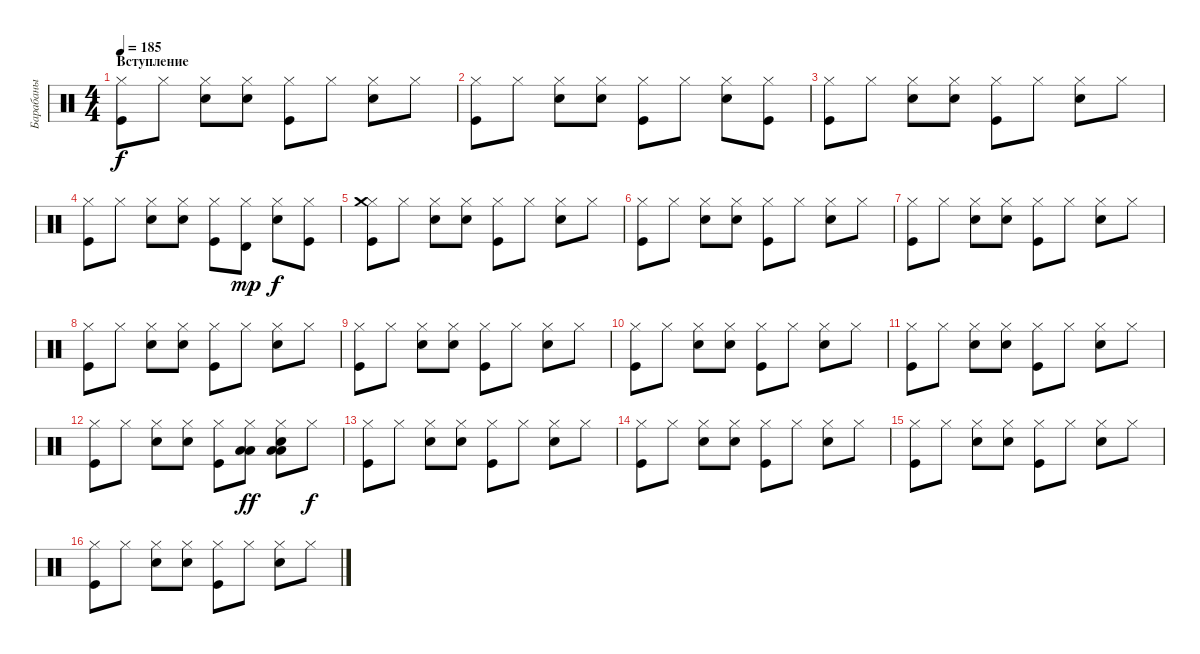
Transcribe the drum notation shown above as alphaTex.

\track ("Барабаны" "Барабаны") {instrument percussion}
\staff {score}
\articulation defaults
\ts (4 4)
\section ("" "Вступление")
\tempo 185
\clef neutral
\ks c
("Kick (hit)" "Hi-Hat (closed)").8{dy f} "Hi-Hat (closed)".8 ("Snare (hit) 2" "Hi-Hat (closed)").8 ("Snare (hit) 2" "Hi-Hat (closed)").8 ("Kick (hit)" "Hi-Hat (closed)").8 "Hi-Hat (closed)".8 ("Snare (hit) 2" "Hi-Hat (closed)").8 "Hi-Hat (closed)".8 |
("Kick (hit)" "Hi-Hat (closed)").8 "Hi-Hat (closed)".8 ("Snare (hit) 2" "Hi-Hat (closed)").8 ("Snare (hit) 2" "Hi-Hat (closed)").8 ("Kick (hit)" "Hi-Hat (closed)").8 "Hi-Hat (closed)".8 ("Snare (hit) 2" "Hi-Hat (closed)").8 ("Kick (hit)" "Hi-Hat (closed)").8 |
("Kick (hit)" "Hi-Hat (closed)").8 "Hi-Hat (closed)".8 ("Snare (hit) 2" "Hi-Hat (closed)").8 ("Snare (hit) 2" "Hi-Hat (closed)").8 ("Kick (hit)" "Hi-Hat (closed)").8 "Hi-Hat (closed)".8 ("Snare (hit) 2" "Hi-Hat (closed)").8 "Hi-Hat (closed)".8 |
("Kick (hit)" "Hi-Hat (closed)").8 "Hi-Hat (closed)".8 ("Snare (hit) 2" "Hi-Hat (closed)").8 ("Snare (hit) 2" "Hi-Hat (closed)").8 ("Kick (hit)" "Hi-Hat (closed)").8 ("Hi-Hat (closed)" "Timbale high (hit)").8{dy mp} ("Snare (hit) 2" "Hi-Hat (closed)").8{dy f} ("Kick (hit)" "Hi-Hat (closed)").8 |
("Kick (hit)" "Hi-Hat (closed)" "Crash medium (hit)").8 "Hi-Hat (closed)".8 ("Snare (hit) 2" "Hi-Hat (closed)").8 ("Snare (hit) 2" "Hi-Hat (closed)").8 ("Kick (hit)" "Hi-Hat (closed)").8 "Hi-Hat (closed)".8 ("Snare (hit) 2" "Hi-Hat (closed)").8 "Hi-Hat (closed)".8 |
("Kick (hit)" "Hi-Hat (closed)").8 "Hi-Hat (closed)".8 ("Snare (hit) 2" "Hi-Hat (closed)").8 ("Snare (hit) 2" "Hi-Hat (closed)").8 ("Kick (hit)" "Hi-Hat (closed)").8 "Hi-Hat (closed)".8 ("Snare (hit) 2" "Hi-Hat (closed)").8 "Hi-Hat (closed)".8 |
("Kick (hit)" "Hi-Hat (closed)").8 "Hi-Hat (closed)".8 ("Snare (hit) 2" "Hi-Hat (closed)").8 ("Snare (hit) 2" "Hi-Hat (closed)").8 ("Kick (hit)" "Hi-Hat (closed)").8 "Hi-Hat (closed)".8 ("Snare (hit) 2" "Hi-Hat (closed)").8 "Hi-Hat (closed)".8 |
("Kick (hit)" "Hi-Hat (closed)").8 "Hi-Hat (closed)".8 ("Snare (hit) 2" "Hi-Hat (closed)").8 ("Snare (hit) 2" "Hi-Hat (closed)").8 ("Kick (hit)" "Hi-Hat (closed)").8 "Hi-Hat (closed)".8 ("Snare (hit) 2" "Hi-Hat (closed)").8 "Hi-Hat (closed)".8 |
("Kick (hit)" "Hi-Hat (closed)").8 "Hi-Hat (closed)".8 ("Snare (hit) 2" "Hi-Hat (closed)").8 ("Snare (hit) 2" "Hi-Hat (closed)").8 ("Kick (hit)" "Hi-Hat (closed)").8 "Hi-Hat (closed)".8 ("Snare (hit) 2" "Hi-Hat (closed)").8 "Hi-Hat (closed)".8 |
("Kick (hit)" "Hi-Hat (closed)").8 "Hi-Hat (closed)".8 ("Snare (hit) 2" "Hi-Hat (closed)").8 ("Snare (hit) 2" "Hi-Hat (closed)").8 ("Kick (hit)" "Hi-Hat (closed)").8 "Hi-Hat (closed)".8 ("Snare (hit) 2" "Hi-Hat (closed)").8 "Hi-Hat (closed)".8 |
("Kick (hit)" "Hi-Hat (closed)").8 "Hi-Hat (closed)".8 ("Snare (hit) 2" "Hi-Hat (closed)").8 ("Snare (hit) 2" "Hi-Hat (closed)").8 ("Kick (hit)" "Hi-Hat (closed)").8 "Hi-Hat (closed)".8 ("Snare (hit) 2" "Hi-Hat (closed)").8 "Hi-Hat (closed)".8 |
("Kick (hit)" "Hi-Hat (closed)").8 "Hi-Hat (closed)".8 ("Snare (hit) 2" "Hi-Hat (closed)").8 ("Snare (hit) 2" "Hi-Hat (closed)").8 ("Kick (hit)" "Hi-Hat (closed)").8 ("Hi-Hat (closed)" "Low Floor Tom (hit)" "Low Floor Tom (hit)").8{dy ff} ("Snare (hit) 2" "Hi-Hat (closed)" "Low Floor Tom (hit)" "Low Floor Tom (hit)").8 "Hi-Hat (closed)".8{dy f} |
("Kick (hit)" "Hi-Hat (closed)").8 "Hi-Hat (closed)".8 ("Snare (hit) 2" "Hi-Hat (closed)").8 ("Snare (hit) 2" "Hi-Hat (closed)").8 ("Kick (hit)" "Hi-Hat (closed)").8 "Hi-Hat (closed)".8 ("Snare (hit) 2" "Hi-Hat (closed)").8 "Hi-Hat (closed)".8 |
("Kick (hit)" "Hi-Hat (closed)").8 "Hi-Hat (closed)".8 ("Snare (hit) 2" "Hi-Hat (closed)").8 ("Snare (hit) 2" "Hi-Hat (closed)").8 ("Kick (hit)" "Hi-Hat (closed)").8 "Hi-Hat (closed)".8 ("Snare (hit) 2" "Hi-Hat (closed)").8 "Hi-Hat (closed)".8 |
("Kick (hit)" "Hi-Hat (closed)").8 "Hi-Hat (closed)".8 ("Snare (hit) 2" "Hi-Hat (closed)").8 ("Snare (hit) 2" "Hi-Hat (closed)").8 ("Kick (hit)" "Hi-Hat (closed)").8 "Hi-Hat (closed)".8 ("Snare (hit) 2" "Hi-Hat (closed)").8 "Hi-Hat (closed)".8 |
("Kick (hit)" "Hi-Hat (closed)").8 "Hi-Hat (closed)".8 ("Snare (hit) 2" "Hi-Hat (closed)").8 ("Snare (hit) 2" "Hi-Hat (closed)").8 ("Kick (hit)" "Hi-Hat (closed)").8 "Hi-Hat (closed)".8 ("Snare (hit) 2" "Hi-Hat (closed)").8 "Hi-Hat (closed)".8
